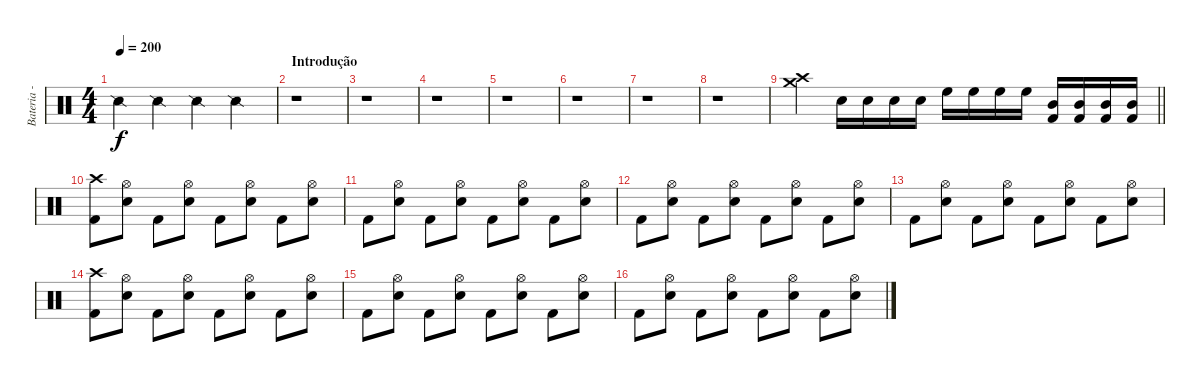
\track ("Bateria - Larzon" "Bateria - ") {instrument percussion}
\staff {score}
\articulation defaults
\ts (4 4)
\tempo 200
\clef neutral
\ks c "Snare (side stick) 2".4{dy f} "Snare (side stick) 2".4 "Snare (side stick) 2".4 "Snare (side stick) 2".4
|
\section ("" "Introdução")
r.1 |
r.1 |
r.1 |
r.1 |
r.1 |
r.1 |
r.1 |
\barLineRight lightlight
("Crash high (hit)" "Crash medium (hit)").4 "Electric Snare (hit)".16 "Electric Snare (hit)".16 "Electric Snare (hit)".16 "Electric Snare (hit)".16 "High Floor Tom (hit)".16 "High Floor Tom (hit)".16 "High Floor Tom (hit)".16 "High Floor Tom (hit)".16 ("Kick (hit) 2" "Mid Tom (hit)").16 ("Kick (hit) 2" "Mid Tom (hit)").16 ("Kick (hit) 2" "Mid Tom (hit)").16 ("Kick (hit) 2" "Mid Tom (hit)").16 |
("Kick (hit) 2" "Crash high (hit)").8 ("Electric Snare (hit)" "Hi-Hat (open)").8 "Kick (hit) 2".8 ("Electric Snare (hit)" "Hi-Hat (open)").8 "Kick (hit) 2".8 ("Electric Snare (hit)" "Hi-Hat (open)").8 "Kick (hit) 2".8 ("Electric Snare (hit)" "Hi-Hat (open)").8 |
"Kick (hit) 2".8 ("Hi-Hat (open)" "Electric Snare (hit)").8 "Kick (hit) 2".8 ("Hi-Hat (open)" "Electric Snare (hit)").8 "Kick (hit) 2".8 ("Hi-Hat (open)" "Electric Snare (hit)").8 "Kick (hit) 2".8 ("Hi-Hat (open)" "Electric Snare (hit)").8 |
"Kick (hit) 2".8 ("Hi-Hat (open)" "Electric Snare (hit)").8 "Kick (hit) 2".8 ("Hi-Hat (open)" "Electric Snare (hit)").8 "Kick (hit) 2".8 ("Hi-Hat (open)" "Electric Snare (hit)").8 "Kick (hit) 2".8 ("Hi-Hat (open)" "Electric Snare (hit)").8 |
"Kick (hit) 2".8 ("Hi-Hat (open)" "Electric Snare (hit)").8 "Kick (hit) 2".8 ("Hi-Hat (open)" "Electric Snare (hit)").8 "Kick (hit) 2".8 ("Hi-Hat (open)" "Electric Snare (hit)").8 "Kick (hit) 2".8 ("Hi-Hat (open)" "Electric Snare (hit)").8 |
("Kick (hit) 2" "Crash high (hit)").8 ("Hi-Hat (open)" "Electric Snare (hit)").8 "Kick (hit) 2".8 ("Hi-Hat (open)" "Electric Snare (hit)").8 "Kick (hit) 2".8 ("Hi-Hat (open)" "Electric Snare (hit)").8 "Kick (hit) 2".8 ("Hi-Hat (open)" "Electric Snare (hit)").8 |
"Kick (hit) 2".8 ("Hi-Hat (open)" "Electric Snare (hit)").8 "Kick (hit) 2".8 ("Hi-Hat (open)" "Electric Snare (hit)").8 "Kick (hit) 2".8 ("Hi-Hat (open)" "Electric Snare (hit)").8 "Kick (hit) 2".8 ("Hi-Hat (open)" "Electric Snare (hit)").8 |
"Kick (hit) 2".8 ("Hi-Hat (open)" "Electric Snare (hit)").8 "Kick (hit) 2".8 ("Hi-Hat (open)" "Electric Snare (hit)").8 "Kick (hit) 2".8 ("Hi-Hat (open)" "Electric Snare (hit)").8 "Kick (hit) 2".8 ("Hi-Hat (open)" "Electric Snare (hit)").8
